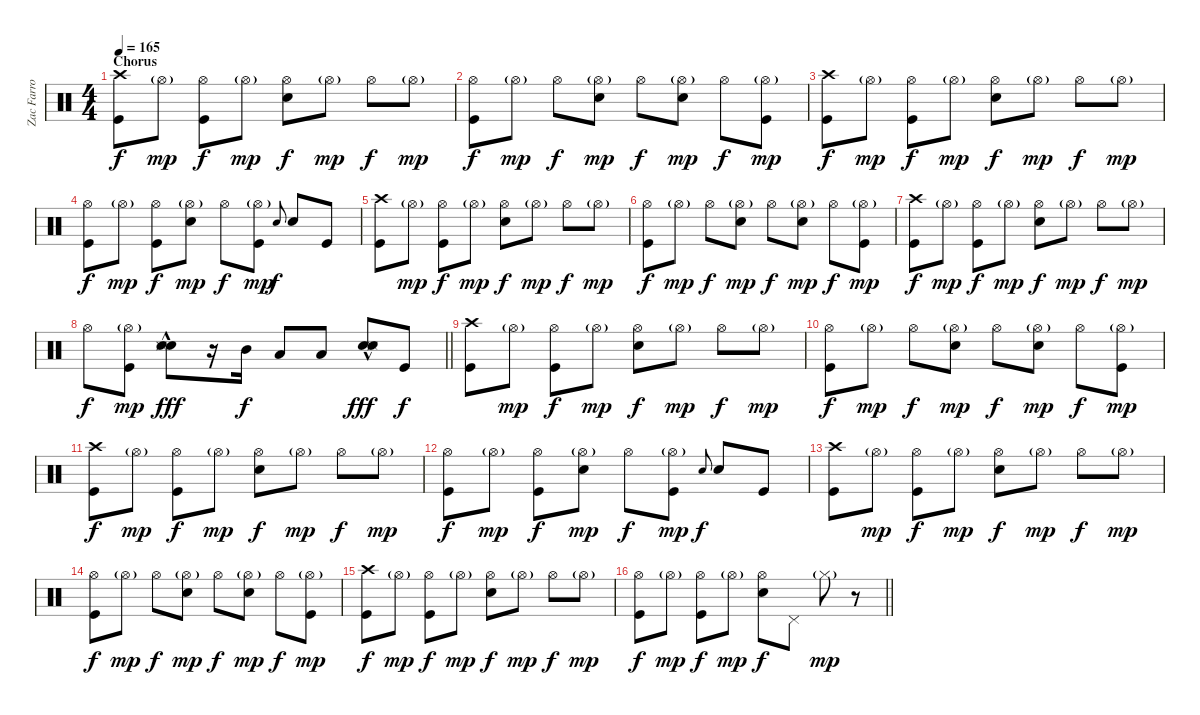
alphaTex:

\track ("Zac Farro (Drums)" "Zac Farro ") {instrument percussion}
\staff {score}
\articulation defaults
\ts (4 4)
\section ("" "Chorus")
\tempo 165
\clef neutral
\ks c
("Crash high (hit)" "Kick (hit)").8{dy f} "Hi-Hat (open)"{g}.8{dy mp} ("Hi-Hat (open)" "Kick (hit)").8{dy f} "Hi-Hat (open)"{g}.8{dy mp} ("Hi-Hat (open)" "Electric Snare (hit)").8{dy f} "Hi-Hat (open)"{g}.8{dy mp} "Hi-Hat (open)".8{dy f} "Hi-Hat (open)"{g}.8{dy mp} |
("Hi-Hat (open)" "Kick (hit)").8{dy f} "Hi-Hat (open)"{g}.8{dy mp} "Hi-Hat (open)".8{dy f} ("Hi-Hat (open)"{g} "Electric Snare (hit)").8{dy mp} "Hi-Hat (open)".8{dy f} ("Hi-Hat (open)"{g} "Electric Snare (hit)").8{dy mp} "Hi-Hat (open)".8{dy f} ("Hi-Hat (open)"{g} "Kick (hit)").8{dy mp} |
("Crash high (hit)" "Kick (hit)").8{dy f} "Hi-Hat (open)"{g}.8{dy mp} ("Hi-Hat (open)" "Kick (hit)").8{dy f} "Hi-Hat (open)"{g}.8{dy mp} ("Hi-Hat (open)" "Electric Snare (hit)").8{dy f} "Hi-Hat (open)"{g}.8{dy mp} "Hi-Hat (open)".8{dy f} "Hi-Hat (open)"{g}.8{dy mp} |
("Hi-Hat (open)" "Kick (hit)").8{dy f} "Hi-Hat (open)"{g}.8{dy mp} ("Hi-Hat (open)" "Kick (hit)").8{dy f} ("Hi-Hat (open)"{g} "Electric Snare (hit)").8{dy mp} "Hi-Hat (open)".8{dy f} ("Hi-Hat (open)"{g} "Kick (hit)").8{dy mp} "Electric Snare (hit)".8{gr onbeat dy f} "Electric Snare (hit)".8 "Kick (hit)".8 |
("Crash high (hit)" "Kick (hit)").8 "Hi-Hat (open)"{g}.8{dy mp} ("Hi-Hat (open)" "Kick (hit)").8{dy f} "Hi-Hat (open)"{g}.8{dy mp} ("Hi-Hat (open)" "Electric Snare (hit)").8{dy f} "Hi-Hat (open)"{g}.8{dy mp} "Hi-Hat (open)".8{dy f} "Hi-Hat (open)"{g}.8{dy mp} |
("Hi-Hat (open)" "Kick (hit)").8{dy f} "Hi-Hat (open)"{g}.8{dy mp} "Hi-Hat (open)".8{dy f} ("Hi-Hat (open)"{g} "Electric Snare (hit)").8{dy mp} "Hi-Hat (open)".8{dy f} ("Hi-Hat (open)"{g} "Electric Snare (hit)").8{dy mp} "Hi-Hat (open)".8{dy f} ("Hi-Hat (open)"{g} "Kick (hit)").8{dy mp} |
("Crash high (hit)" "Kick (hit)").8{dy f} "Hi-Hat (open)"{g}.8{dy mp} ("Hi-Hat (open)" "Kick (hit)").8{dy f} "Hi-Hat (open)"{g}.8{dy mp} ("Hi-Hat (open)" "Electric Snare (hit)").8{dy f} "Hi-Hat (open)"{g}.8{dy mp} "Hi-Hat (open)".8{dy f} "Hi-Hat (open)"{g}.8{dy mp} |
\barLineRight lightlight "Hi-Hat (open)".8{dy f}
("Hi-Hat (open)"{g} "Kick (hit)").8{dy mp} ("Snare (hit) 2"{hac} "Snare (side stick) 3"{hac} "Electric Snare (hit)"{hac}).8{dy fff} r.16 "Mid Tom (hit)".16{dy f} "Low Floor Tom (hit)".8 "Low Floor Tom (hit)".8 ("Snare (hit) 2"{hac} "Snare (side stick) 3"{hac} "Electric Snare (hit)"{hac}).8{dy fff} "Kick (hit)".8{dy f} |
("Crash high (hit)" "Kick (hit)").8 "Hi-Hat (open)"{g}.8{dy mp} ("Hi-Hat (open)" "Kick (hit)").8{dy f} "Hi-Hat (open)"{g}.8{dy mp} ("Hi-Hat (open)" "Electric Snare (hit)").8{dy f} "Hi-Hat (open)"{g}.8{dy mp} "Hi-Hat (open)".8{dy f} "Hi-Hat (open)"{g}.8{dy mp} |
("Hi-Hat (open)" "Kick (hit)").8{dy f} "Hi-Hat (open)"{g}.8{dy mp} "Hi-Hat (open)".8{dy f} ("Hi-Hat (open)"{g} "Electric Snare (hit)").8{dy mp} "Hi-Hat (open)".8{dy f} ("Hi-Hat (open)"{g} "Electric Snare (hit)").8{dy mp} "Hi-Hat (open)".8{dy f} ("Hi-Hat (open)"{g} "Kick (hit)").8{dy mp} |
("Crash high (hit)" "Kick (hit)").8{dy f} "Hi-Hat (open)"{g}.8{dy mp} ("Hi-Hat (open)" "Kick (hit)").8{dy f} "Hi-Hat (open)"{g}.8{dy mp} ("Hi-Hat (open)" "Electric Snare (hit)").8{dy f} "Hi-Hat (open)"{g}.8{dy mp} "Hi-Hat (open)".8{dy f} "Hi-Hat (open)"{g}.8{dy mp} |
("Hi-Hat (open)" "Kick (hit)").8{dy f} "Hi-Hat (open)"{g}.8{dy mp} ("Hi-Hat (open)" "Kick (hit)").8{dy f} ("Hi-Hat (open)"{g} "Electric Snare (hit)").8{dy mp} "Hi-Hat (open)".8{dy f} ("Hi-Hat (open)"{g} "Kick (hit)").8{dy mp} "Electric Snare (hit)".8{gr onbeat dy f} "Electric Snare (hit)".8 "Kick (hit)".8 |
("Crash high (hit)" "Kick (hit)").8 "Hi-Hat (open)"{g}.8{dy mp} ("Hi-Hat (open)" "Kick (hit)").8{dy f} "Hi-Hat (open)"{g}.8{dy mp} ("Hi-Hat (open)" "Electric Snare (hit)").8{dy f} "Hi-Hat (open)"{g}.8{dy mp} "Hi-Hat (open)".8{dy f} "Hi-Hat (open)"{g}.8{dy mp} |
("Hi-Hat (open)" "Kick (hit)").8{dy f} "Hi-Hat (open)"{g}.8{dy mp} "Hi-Hat (open)".8{dy f} ("Hi-Hat (open)"{g} "Electric Snare (hit)").8{dy mp} "Hi-Hat (open)".8{dy f} ("Hi-Hat (open)"{g} "Electric Snare (hit)").8{dy mp} "Hi-Hat (open)".8{dy f} ("Hi-Hat (open)"{g} "Kick (hit)").8{dy mp} |
("Crash high (hit)" "Kick (hit)").8{dy f} "Hi-Hat (open)"{g}.8{dy mp} ("Hi-Hat (open)" "Kick (hit)").8{dy f} "Hi-Hat (open)"{g}.8{dy mp} ("Hi-Hat (open)" "Electric Snare (hit)").8{dy f} "Hi-Hat (open)"{g}.8{dy mp} "Hi-Hat (open)".8{dy f} "Hi-Hat (open)"{g}.8{dy mp} |
\barLineRight lightlight
("Hi-Hat (open)" "Kick (hit)").8{dy f} "Hi-Hat (open)"{g}.8{dy mp} ("Hi-Hat (open)" "Kick (hit)").8{dy f} "Hi-Hat (open)"{g}.8{dy mp} ("Hi-Hat (open)" "Electric Snare (hit)").8{dy f} "Pedal Hi-Hat (hit)".8 "Hi-Hat (closed)"{g}.8{dy mp} r.8
